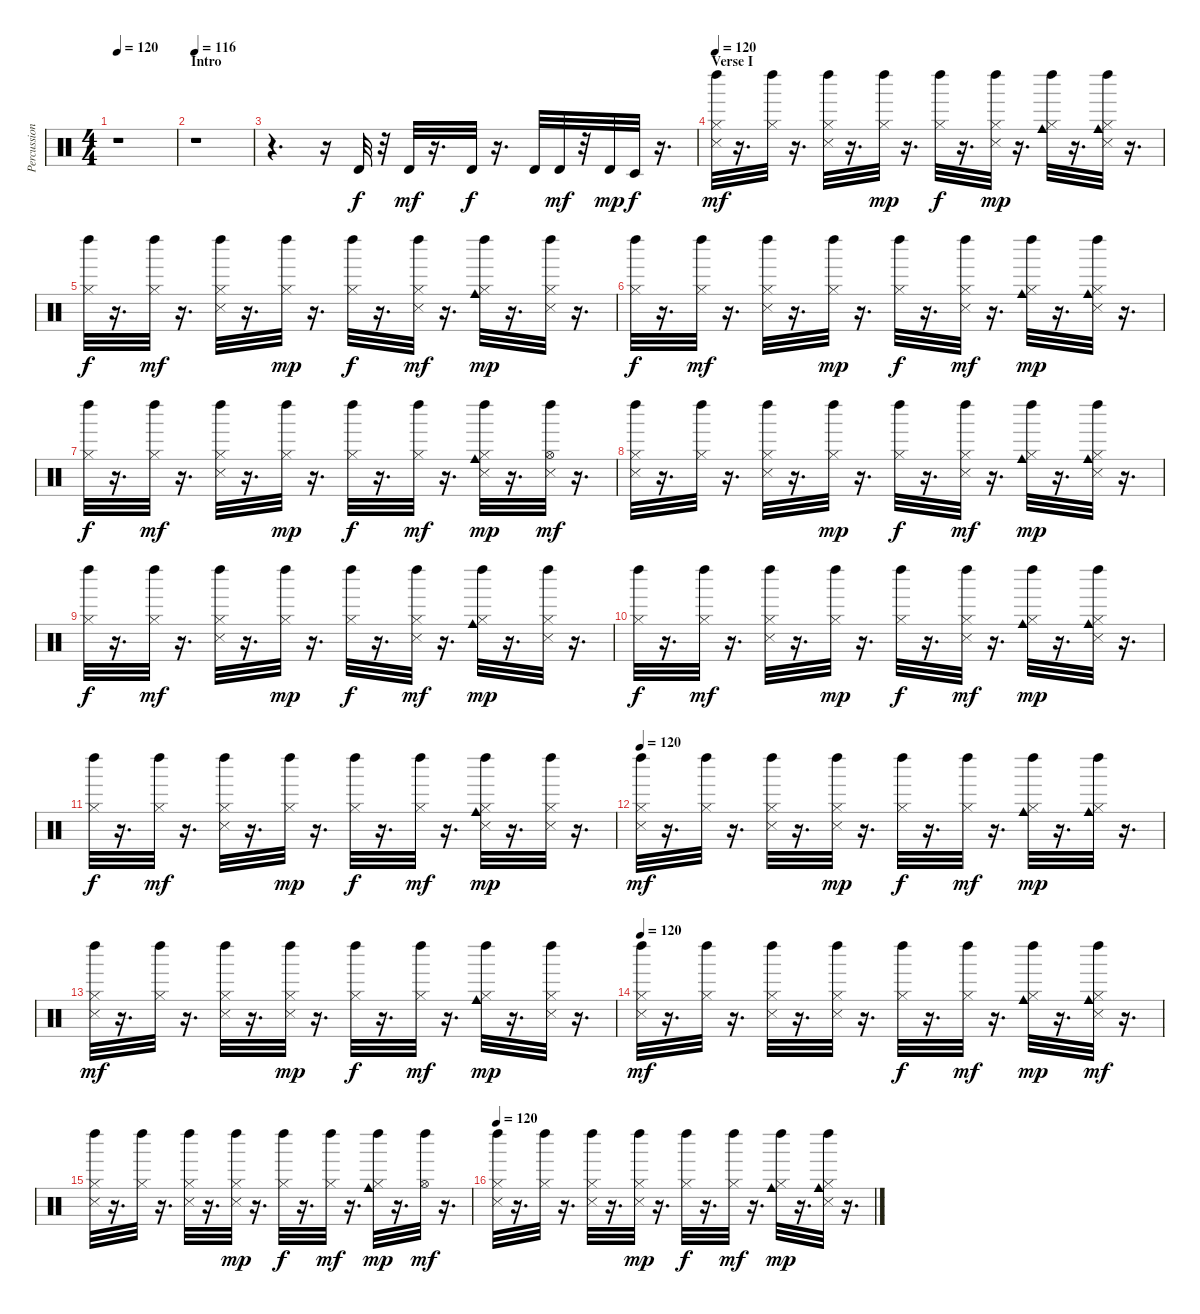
\track ("Percussion" "Percussion") {instrument percussion}
\staff {score}
\articulation defaults
\ts (4 4)
\tempo 120
\clef neutral
\ks c
r.1{dy f} |
\section ("" "Intro")
\tempo 116
r.1 |
r.4{d} r.16 "Timbale high (hit)".32 r.32 "Timbale high (hit)".32{dy mf} r.16{d} "Timbale high (hit)".32{dy f} r.16{d} "Timbale high (hit)".32 "Timbale high (hit)".32{dy mf} r.32 "Timbale high (hit)".32{dy mp} "Timbale low (hit)".32{dy f} r.16{d} |
\section ("" "Verse I")
\tempo 120
("Left Maraca (hit)" "Hi-Hat (closed)" "Metronome (hit)").32{dy mf} r.16{d} ("Left Maraca (hit)" "Hi-Hat (closed)").32 r.16{d} ("Left Maraca (hit)" "Snare (side stick) 3" "Hi-Hat (closed)").32 r.16{d} ("Left Maraca (hit)" "Hi-Hat (closed)").32{dy mp} r.16{d} ("Left Maraca (hit)" "Hi-Hat (closed)").32{dy f} r.16{d} ("Left Maraca (hit)" "Hi-Hat (closed)" "Metronome (hit)").32{dy mp} r.16{d} ("Left Maraca (hit)" "Cowbell medium (hit)" "Hi-Hat (closed)").32 r.16{d} ("Cowbell medium (hit)" "Hi-Hat (closed)" "Metronome (hit)" "Left Maraca (hit)").32 r.16{d} |
("Hi-Hat (closed)" "Left Maraca (hit)").32{dy f} r.16{d} ("Hi-Hat (closed)" "Left Maraca (hit)").32{dy mf} r.16{d} ("Snare (side stick) 3" "Hi-Hat (closed)" "Left Maraca (hit)").32 r.16{d} ("Hi-Hat (closed)" "Left Maraca (hit)").32{dy mp} r.16{d} ("Hi-Hat (closed)" "Left Maraca (hit)").32{dy f} r.16{d} ("Metronome (hit)" "Hi-Hat (closed)" "Left Maraca (hit)").32{dy mf} r.16{d} ("Cowbell medium (hit)" "Hi-Hat (closed)" "Left Maraca (hit)").32{dy mp} r.16{d} ("Metronome (hit)" "Hi-Hat (closed)" "Left Maraca (hit)").32 r.16{d} |
("Hi-Hat (closed)" "Left Maraca (hit)").32{dy f} r.16{d} ("Hi-Hat (closed)" "Left Maraca (hit)").32{dy mf} r.16{d} ("Hi-Hat (closed)" "Left Maraca (hit)" "Snare (side stick) 3").32 r.16{d} ("Hi-Hat (closed)" "Left Maraca (hit)").32{dy mp} r.16{d} ("Hi-Hat (closed)" "Left Maraca (hit)").32{dy f} r.16{d} ("Metronome (hit)" "Hi-Hat (closed)" "Left Maraca (hit)").32{dy mf} r.16{d} ("Hi-Hat (closed)" "Left Maraca (hit)" "Cowbell medium (hit)").32{dy mp} r.16{d} ("Metronome (hit)" "Hi-Hat (closed)" "Left Maraca (hit)" "Cowbell medium (hit)").32 r.16{d} |
("Left Maraca (hit)" "Hi-Hat (closed)").32{dy f} r.16{d} ("Left Maraca (hit)" "Hi-Hat (closed)").32{dy mf} r.16{d} ("Snare (side stick) 3" "Left Maraca (hit)" "Hi-Hat (closed)").32 r.16{d} ("Left Maraca (hit)" "Hi-Hat (closed)").32{dy mp} r.16{d} ("Left Maraca (hit)" "Hi-Hat (closed)").32{dy f} r.16{d} ("Left Maraca (hit)" "Hi-Hat (closed)").32{dy mf} r.16{d} ("Metronome (hit)" "Cowbell medium (hit)" "Left Maraca (hit)" "Hi-Hat (closed)").32{dy mp} r.16{d} ("Metronome (hit)" "Left Maraca (hit)" "Hi-Hat (open)").32{dy mf} r.16{d} |
("Metronome (hit)" "Hi-Hat (closed)" "Left Maraca (hit)").32 r.16{d} ("Hi-Hat (closed)" "Left Maraca (hit)").32 r.16{d} ("Hi-Hat (closed)" "Left Maraca (hit)" "Snare (side stick) 3").32 r.16{d} ("Hi-Hat (closed)" "Left Maraca (hit)").32{dy mp} r.16{d} ("Hi-Hat (closed)" "Left Maraca (hit)").32{dy f} r.16{d} ("Metronome (hit)" "Hi-Hat (closed)" "Left Maraca (hit)").32{dy mf} r.16{d} ("Hi-Hat (closed)" "Left Maraca (hit)" "Cowbell medium (hit)").32{dy mp} r.16{d} ("Metronome (hit)" "Hi-Hat (closed)" "Cowbell medium (hit)" "Left Maraca (hit)").32 r.16{d} |
("Hi-Hat (closed)" "Left Maraca (hit)").32{dy f} r.16{d} ("Hi-Hat (closed)" "Left Maraca (hit)").32{dy mf} r.16{d} ("Hi-Hat (closed)" "Left Maraca (hit)" "Snare (side stick) 3").32 r.16{d} ("Hi-Hat (closed)" "Left Maraca (hit)").32{dy mp} r.16{d} ("Hi-Hat (closed)" "Left Maraca (hit)").32{dy f} r.16{d} ("Metronome (hit)" "Hi-Hat (closed)" "Left Maraca (hit)").32{dy mf} r.16{d} ("Hi-Hat (closed)" "Left Maraca (hit)" "Cowbell medium (hit)").32{dy mp} r.16{d} ("Metronome (hit)" "Hi-Hat (closed)" "Left Maraca (hit)").32 r.16{d} |
("Hi-Hat (closed)" "Left Maraca (hit)").32{dy f} r.16{d} ("Hi-Hat (closed)" "Left Maraca (hit)").32{dy mf} r.16{d} ("Hi-Hat (closed)" "Left Maraca (hit)" "Snare (side stick) 3").32 r.16{d} ("Hi-Hat (closed)" "Left Maraca (hit)").32{dy mp} r.16{d} ("Hi-Hat (closed)" "Left Maraca (hit)").32{dy f} r.16{d} ("Metronome (hit)" "Hi-Hat (closed)" "Left Maraca (hit)").32{dy mf} r.16{d} ("Hi-Hat (closed)" "Left Maraca (hit)" "Cowbell medium (hit)").32{dy mp} r.16{d} ("Metronome (hit)" "Hi-Hat (closed)" "Left Maraca (hit)" "Cowbell medium (hit)").32 r.16{d} |
("Left Maraca (hit)" "Hi-Hat (closed)").32{dy f} r.16{d} ("Left Maraca (hit)" "Hi-Hat (closed)").32{dy mf} r.16{d} ("Snare (side stick) 3" "Left Maraca (hit)" "Hi-Hat (closed)").32 r.16{d} ("Left Maraca (hit)" "Hi-Hat (closed)").32{dy mp} r.16{d} ("Left Maraca (hit)" "Hi-Hat (closed)").32{dy f} r.16{d} ("Left Maraca (hit)" "Hi-Hat (closed)").32{dy mf} r.16{d} ("Metronome (hit)" "Cowbell medium (hit)" "Left Maraca (hit)" "Hi-Hat (closed)").32{dy mp} r.16{d} ("Metronome (hit)" "Left Maraca (hit)" "Hi-Hat (closed)").32 r.16{d} |
\tempo 120
("Metronome (hit)" "Hi-Hat (closed)" "Left Maraca (hit)").32{dy mf} r.16{d} ("Hi-Hat (closed)" "Left Maraca (hit)").32 r.16{d} ("Hi-Hat (closed)" "Snare (side stick) 3" "Left Maraca (hit)").32 r.16{d} ("Metronome (hit)" "Hi-Hat (closed)" "Left Maraca (hit)").32{dy mp} r.16{d} ("Hi-Hat (closed)" "Left Maraca (hit)").32{dy f} r.16{d} ("Hi-Hat (closed)" "Left Maraca (hit)").32{dy mf} r.16{d} ("Hi-Hat (closed)" "Cowbell medium (hit)" "Left Maraca (hit)").32{dy mp} r.16{d} ("Hi-Hat (closed)" "Cowbell medium (hit)" "Left Maraca (hit)").32 r.16{d} |
("Metronome (hit)" "Hi-Hat (closed)" "Left Maraca (hit)").32{dy mf} r.16{d} ("Hi-Hat (closed)" "Left Maraca (hit)").32 r.16{d} ("Snare (side stick) 3" "Hi-Hat (closed)" "Left Maraca (hit)").32 r.16{d} ("Metronome (hit)" "Hi-Hat (closed)" "Left Maraca (hit)").32{dy mp} r.16{d} ("Hi-Hat (closed)" "Left Maraca (hit)").32{dy f} r.16{d} ("Hi-Hat (closed)" "Left Maraca (hit)").32{dy mf} r.16{d} ("Cowbell medium (hit)" "Hi-Hat (closed)" "Left Maraca (hit)").32{dy mp} r.16{d} ("Metronome (hit)" "Hi-Hat (closed)" "Left Maraca (hit)").32 r.16{d} |
\tempo 120
("Hi-Hat (closed)" "Left Maraca (hit)" "Metronome (hit)").32{dy mf} r.16{d} ("Hi-Hat (closed)" "Left Maraca (hit)").32 r.16{d} ("Hi-Hat (closed)" "Snare (side stick) 3" "Left Maraca (hit)").32 r.16{d} ("Hi-Hat (closed)" "Left Maraca (hit)" "Metronome (hit)").32 r.16{d} ("Hi-Hat (closed)" "Left Maraca (hit)").32{dy f} r.16{d} ("Hi-Hat (closed)" "Left Maraca (hit)").32{dy mf} r.16{d} ("Hi-Hat (closed)" "Cowbell medium (hit)" "Left Maraca (hit)").32{dy mp} r.16{d} ("Hi-Hat (closed)" "Cowbell medium (hit)" "Left Maraca (hit)" "Metronome (hit)").32{dy mf} r.16{d} |
("Metronome (hit)" "Left Maraca (hit)" "Hi-Hat (closed)").32 r.16{d} ("Left Maraca (hit)" "Hi-Hat (closed)").32 r.16{d} ("Snare (side stick) 3" "Left Maraca (hit)" "Hi-Hat (closed)").32 r.16{d} ("Metronome (hit)" "Left Maraca (hit)" "Hi-Hat (closed)").32{dy mp} r.16{d} ("Left Maraca (hit)" "Hi-Hat (closed)").32{dy f} r.16{d} ("Left Maraca (hit)" "Hi-Hat (closed)").32{dy mf} r.16{d} ("Cowbell medium (hit)" "Left Maraca (hit)" "Hi-Hat (closed)").32{dy mp} r.16{d} ("Left Maraca (hit)" "Hi-Hat (open)").32{dy mf} r.16{d} |
\tempo 120
("Hi-Hat (closed)" "Metronome (hit)" "Left Maraca (hit)").32 r.16{d} ("Hi-Hat (closed)" "Left Maraca (hit)").32 r.16{d} ("Hi-Hat (closed)" "Snare (side stick) 3" "Left Maraca (hit)").32 r.16{d} ("Hi-Hat (closed)" "Metronome (hit)" "Left Maraca (hit)").32{dy mp} r.16{d} ("Hi-Hat (closed)" "Left Maraca (hit)").32{dy f} r.16{d} ("Hi-Hat (closed)" "Left Maraca (hit)").32{dy mf} r.16{d} ("Hi-Hat (closed)" "Cowbell medium (hit)" "Left Maraca (hit)").32{dy mp} r.16{d} ("Hi-Hat (closed)" "Cowbell medium (hit)" "Metronome (hit)" "Left Maraca (hit)").32 r.16{d}
